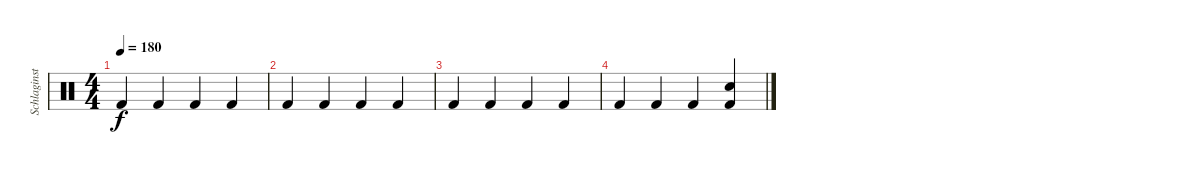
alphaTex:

\track ("Schlaginstrumente - Auswahl" "Schlaginst") {instrument percussion}
\staff {score}
\articulation defaults
\ts (4 4)
\tempo 180
\clef neutral
\ks c "Kick (hit) 2".4{dy f} "Kick (hit) 2".4 "Kick (hit) 2".4 "Kick (hit) 2".4
|
"Kick (hit) 2".4 "Kick (hit) 2".4 "Kick (hit) 2".4 "Kick (hit) 2".4 |
"Kick (hit) 2".4 "Kick (hit) 2".4 "Kick (hit) 2".4 "Kick (hit) 2".4 |
"Kick (hit) 2".4 "Kick (hit) 2".4 "Kick (hit) 2".4 ("Snare (hit) 2" "Kick (hit) 2").4
